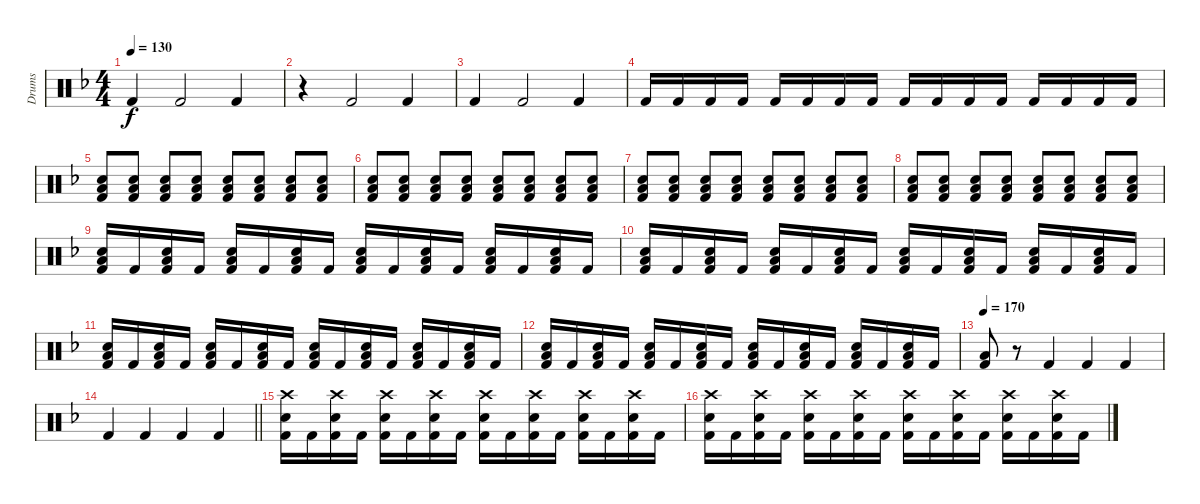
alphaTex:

\track ("Drums" "Drums") {instrument percussion}
\staff {score}
\articulation defaults
\ts (4 4)
\tempo 130
\clef neutral
\ks f "Kick (hit) 2".4{dy f} "Kick (hit) 2".2 "Kick (hit) 2".4
|
r.4 "Kick (hit) 2".2 "Kick (hit) 2".4 |
"Kick (hit) 2".4 "Kick (hit) 2".2 "Kick (hit) 2".4 |
"Kick (hit) 2".16 "Kick (hit) 2".16 "Kick (hit) 2".16 "Kick (hit) 2".16 "Kick (hit) 2".16 "Kick (hit) 2".16 "Kick (hit) 2".16 "Kick (hit) 2".16 "Kick (hit) 2".16 "Kick (hit) 2".16 "Kick (hit) 2".16 "Kick (hit) 2".16 "Kick (hit) 2".16 "Kick (hit) 2".16 "Kick (hit) 2".16 "Kick (hit) 2".16 |
("Low Tom (hit)" "Electric Snare (hit)" "Kick (hit) 2").8 ("Low Tom (hit)" "Electric Snare (hit)" "Kick (hit) 2").8 ("Low Tom (hit)" "Electric Snare (hit)" "Kick (hit) 2").8 ("Low Tom (hit)" "Electric Snare (hit)" "Kick (hit) 2").8 ("Low Tom (hit)" "Electric Snare (hit)" "Kick (hit) 2").8 ("Low Tom (hit)" "Electric Snare (hit)" "Kick (hit) 2").8 ("Low Tom (hit)" "Electric Snare (hit)" "Kick (hit) 2").8 ("Low Tom (hit)" "Electric Snare (hit)" "Kick (hit) 2").8 |
("Low Tom (hit)" "Electric Snare (hit)" "Kick (hit) 2").8 ("Low Tom (hit)" "Electric Snare (hit)" "Kick (hit) 2").8 ("Low Tom (hit)" "Electric Snare (hit)" "Kick (hit) 2").8 ("Low Tom (hit)" "Electric Snare (hit)" "Kick (hit) 2").8 ("Low Tom (hit)" "Electric Snare (hit)" "Kick (hit) 2").8 ("Low Tom (hit)" "Electric Snare (hit)" "Kick (hit) 2").8 ("Low Tom (hit)" "Electric Snare (hit)" "Kick (hit) 2").8 ("Low Tom (hit)" "Electric Snare (hit)" "Kick (hit) 2").8 |
("Low Tom (hit)" "Electric Snare (hit)" "Kick (hit) 2").8 ("Low Tom (hit)" "Electric Snare (hit)" "Kick (hit) 2").8 ("Low Tom (hit)" "Electric Snare (hit)" "Kick (hit) 2").8 ("Low Tom (hit)" "Electric Snare (hit)" "Kick (hit) 2").8 ("Low Tom (hit)" "Electric Snare (hit)" "Kick (hit) 2").8 ("Low Tom (hit)" "Electric Snare (hit)" "Kick (hit) 2").8 ("Low Tom (hit)" "Electric Snare (hit)" "Kick (hit) 2").8 ("Low Tom (hit)" "Electric Snare (hit)" "Kick (hit) 2").8 |
("Low Tom (hit)" "Electric Snare (hit)" "Kick (hit) 2").8 ("Low Tom (hit)" "Electric Snare (hit)" "Kick (hit) 2").8 ("Low Tom (hit)" "Electric Snare (hit)" "Kick (hit) 2").8 ("Low Tom (hit)" "Electric Snare (hit)" "Kick (hit) 2").8 ("Low Tom (hit)" "Electric Snare (hit)" "Kick (hit) 2").8 ("Low Tom (hit)" "Electric Snare (hit)" "Kick (hit) 2").8 ("Low Tom (hit)" "Electric Snare (hit)" "Kick (hit) 2").8 ("Low Tom (hit)" "Electric Snare (hit)" "Kick (hit) 2").8 |
("Low Tom (hit)" "Electric Snare (hit)" "Kick (hit) 2").16 "Kick (hit) 2".16 ("Low Tom (hit)" "Electric Snare (hit)" "Kick (hit) 2").16 "Kick (hit) 2".16 ("Low Tom (hit)" "Electric Snare (hit)" "Kick (hit) 2").16 "Kick (hit) 2".16 ("Low Tom (hit)" "Electric Snare (hit)" "Kick (hit) 2").16 "Kick (hit) 2".16 ("Low Tom (hit)" "Electric Snare (hit)" "Kick (hit) 2").16 "Kick (hit) 2".16 ("Low Tom (hit)" "Electric Snare (hit)" "Kick (hit) 2").16 "Kick (hit) 2".16 ("Low Tom (hit)" "Electric Snare (hit)" "Kick (hit) 2").16 "Kick (hit) 2".16 ("Low Tom (hit)" "Electric Snare (hit)" "Kick (hit) 2").16 "Kick (hit) 2".16 |
("Low Tom (hit)" "Electric Snare (hit)" "Kick (hit) 2").16 "Kick (hit) 2".16 ("Low Tom (hit)" "Electric Snare (hit)" "Kick (hit) 2").16 "Kick (hit) 2".16 ("Low Tom (hit)" "Electric Snare (hit)" "Kick (hit) 2").16 "Kick (hit) 2".16 ("Low Tom (hit)" "Electric Snare (hit)" "Kick (hit) 2").16 "Kick (hit) 2".16 ("Low Tom (hit)" "Electric Snare (hit)" "Kick (hit) 2").16 "Kick (hit) 2".16 ("Low Tom (hit)" "Electric Snare (hit)" "Kick (hit) 2").16 "Kick (hit) 2".16 ("Low Tom (hit)" "Electric Snare (hit)" "Kick (hit) 2").16 "Kick (hit) 2".16 ("Low Tom (hit)" "Electric Snare (hit)" "Kick (hit) 2").16 "Kick (hit) 2".16 |
("Low Tom (hit)" "Electric Snare (hit)" "Kick (hit) 2").16 "Kick (hit) 2".16 ("Low Tom (hit)" "Electric Snare (hit)" "Kick (hit) 2").16 "Kick (hit) 2".16 ("Low Tom (hit)" "Electric Snare (hit)" "Kick (hit) 2").16 "Kick (hit) 2".16 ("Low Tom (hit)" "Electric Snare (hit)" "Kick (hit) 2").16 "Kick (hit) 2".16 ("Low Tom (hit)" "Electric Snare (hit)" "Kick (hit) 2").16 "Kick (hit) 2".16 ("Low Tom (hit)" "Electric Snare (hit)" "Kick (hit) 2").16 "Kick (hit) 2".16 ("Low Tom (hit)" "Electric Snare (hit)" "Kick (hit) 2").16 "Kick (hit) 2".16 ("Low Tom (hit)" "Electric Snare (hit)" "Kick (hit) 2").16 "Kick (hit) 2".16 |
("Low Tom (hit)" "Electric Snare (hit)" "Kick (hit) 2").16 "Kick (hit) 2".16 ("Low Tom (hit)" "Electric Snare (hit)" "Kick (hit) 2").16 "Kick (hit) 2".16 ("Low Tom (hit)" "Electric Snare (hit)" "Kick (hit) 2").16 "Kick (hit) 2".16 ("Low Tom (hit)" "Electric Snare (hit)" "Kick (hit) 2").16 "Kick (hit) 2".16 ("Low Tom (hit)" "Electric Snare (hit)" "Kick (hit) 2").16 "Kick (hit) 2".16 ("Low Tom (hit)" "Electric Snare (hit)" "Kick (hit) 2").16 "Kick (hit) 2".16 ("Low Tom (hit)" "Electric Snare (hit)" "Kick (hit) 2").16 "Kick (hit) 2".16 ("Low Tom (hit)" "Electric Snare (hit)" "Kick (hit) 2").16 "Kick (hit) 2".16 |
\tempo 170
("Low Tom (hit)" "Kick (hit) 2").8 r.8 "Kick (hit) 2".4 "Kick (hit) 2".4 "Kick (hit) 2".4 |
\barLineRight lightlight "Kick (hit) 2".4 "Kick (hit) 2".4 "Kick (hit) 2".4 "Kick (hit) 2".4
|
("Crash high (hit)" "Electric Snare (hit)" "Kick (hit) 2").16 "Kick (hit) 2".16 ("Crash high (hit)" "Electric Snare (hit)" "Kick (hit) 2").16 "Kick (hit) 2".16 ("Crash high (hit)" "Electric Snare (hit)" "Kick (hit) 2").16 "Kick (hit) 2".16 ("Crash high (hit)" "Electric Snare (hit)" "Kick (hit) 2").16 "Kick (hit) 2".16 ("Crash high (hit)" "Electric Snare (hit)" "Kick (hit) 2").16 "Kick (hit) 2".16 ("Crash high (hit)" "Electric Snare (hit)" "Kick (hit) 2").16 "Kick (hit) 2".16 ("Crash high (hit)" "Electric Snare (hit)" "Kick (hit) 2").16 "Kick (hit) 2".16 ("Crash high (hit)" "Electric Snare (hit)" "Kick (hit) 2").16 "Kick (hit) 2".16 |
("Crash high (hit)" "Electric Snare (hit)" "Kick (hit) 2").16 "Kick (hit) 2".16 ("Crash high (hit)" "Electric Snare (hit)" "Kick (hit) 2").16 "Kick (hit) 2".16 ("Crash high (hit)" "Electric Snare (hit)" "Kick (hit) 2").16 "Kick (hit) 2".16 ("Crash high (hit)" "Electric Snare (hit)" "Kick (hit) 2").16 "Kick (hit) 2".16 ("Crash high (hit)" "Electric Snare (hit)" "Kick (hit) 2").16 "Kick (hit) 2".16 ("Crash high (hit)" "Electric Snare (hit)" "Kick (hit) 2").16 "Kick (hit) 2".16 ("Crash high (hit)" "Electric Snare (hit)" "Kick (hit) 2").16 "Kick (hit) 2".16 ("Crash high (hit)" "Electric Snare (hit)" "Kick (hit) 2").16 "Kick (hit) 2".16
